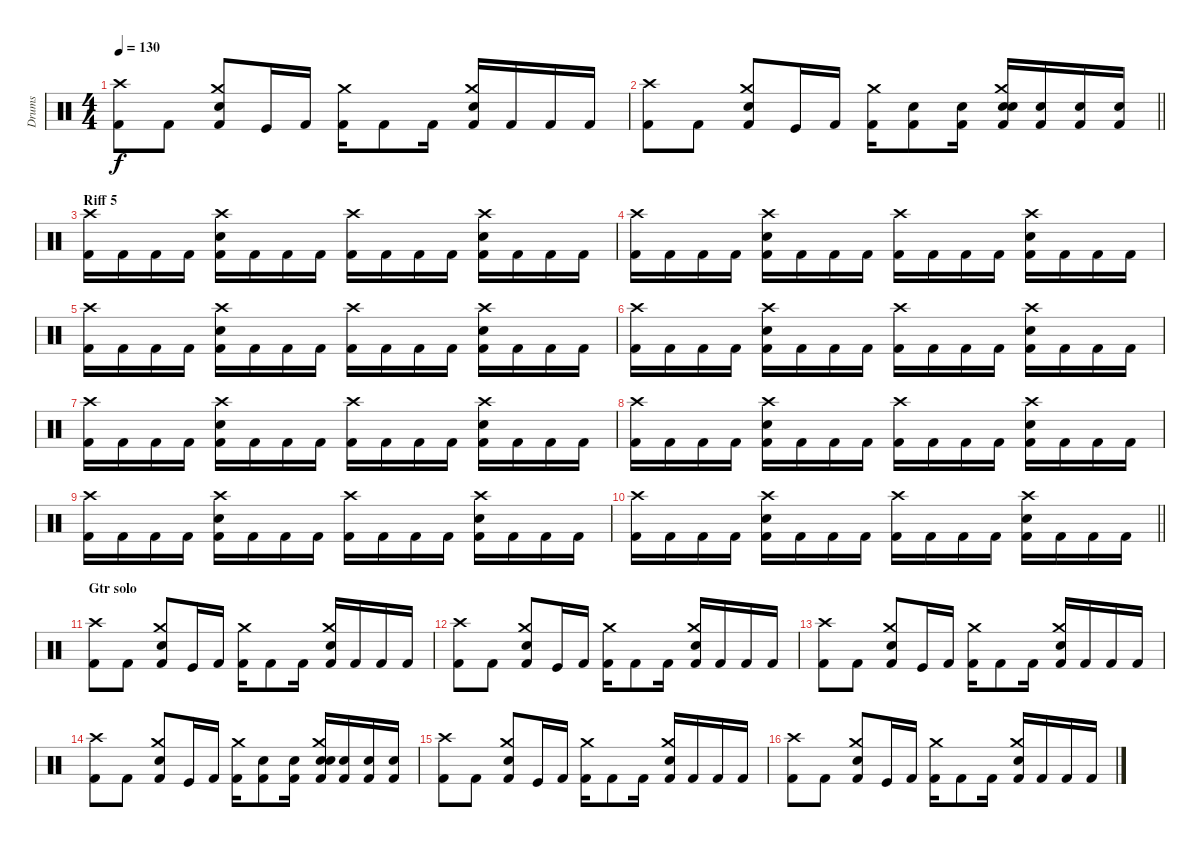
\track ("Drums" "Drums") {instrument percussion}
\staff {score}
\articulation defaults
\ts (4 4)
\tempo 130
\clef neutral
\ks c
("Crash high (hit)" "Kick (hit) 2").8{dy f} "Kick (hit) 2".8 ("Crash medium (hit)" "Electric Snare (hit)" "Kick (hit) 2").8 "Kick (hit)".16 "Kick (hit) 2".16 ("Crash medium (hit)" "Kick (hit) 2").16 "Kick (hit) 2".8 "Kick (hit) 2".16 ("Crash medium (hit)" "Electric Snare (hit)" "Kick (hit) 2").16 "Kick (hit) 2".16 "Kick (hit) 2".16 "Kick (hit) 2".16 |
\barLineRight lightlight
("Crash high (hit)" "Kick (hit) 2").8 "Kick (hit) 2".8 ("Crash medium (hit)" "Electric Snare (hit)" "Kick (hit) 2").8 "Kick (hit)".16 "Kick (hit) 2".16 ("Crash medium (hit)" "Kick (hit) 2").16 ("Electric Snare (hit)" "Kick (hit) 2").8 ("Electric Snare (hit)" "Kick (hit) 2").16 ("Crash medium (hit)" "Electric Snare (hit)" "Electric Snare (hit)" "Kick (hit) 2").16 ("Electric Snare (hit)" "Kick (hit) 2").16 ("Electric Snare (hit)" "Kick (hit) 2").16 ("Electric Snare (hit)" "Kick (hit) 2").16 |
\section ("" "Riff 5")
("Crash high (hit)" "Kick (hit) 2").16 "Kick (hit) 2".16 "Kick (hit) 2".16 "Kick (hit) 2".16 ("Crash high (hit)" "Electric Snare (hit)" "Kick (hit) 2").16 "Kick (hit) 2".16 "Kick (hit) 2".16 "Kick (hit) 2".16 ("Crash high (hit)" "Kick (hit) 2").16 "Kick (hit) 2".16 "Kick (hit) 2".16 "Kick (hit) 2".16 ("Crash high (hit)" "Electric Snare (hit)" "Kick (hit) 2").16 "Kick (hit) 2".16 "Kick (hit) 2".16 "Kick (hit) 2".16 |
("Crash high (hit)" "Kick (hit) 2").16 "Kick (hit) 2".16 "Kick (hit) 2".16 "Kick (hit) 2".16 ("Crash high (hit)" "Electric Snare (hit)" "Kick (hit) 2").16 "Kick (hit) 2".16 "Kick (hit) 2".16 "Kick (hit) 2".16 ("Crash high (hit)" "Kick (hit) 2").16 "Kick (hit) 2".16 "Kick (hit) 2".16 "Kick (hit) 2".16 ("Crash high (hit)" "Electric Snare (hit)" "Kick (hit) 2").16 "Kick (hit) 2".16 "Kick (hit) 2".16 "Kick (hit) 2".16 |
("Crash high (hit)" "Kick (hit) 2").16 "Kick (hit) 2".16 "Kick (hit) 2".16 "Kick (hit) 2".16 ("Crash high (hit)" "Electric Snare (hit)" "Kick (hit) 2").16 "Kick (hit) 2".16 "Kick (hit) 2".16 "Kick (hit) 2".16 ("Crash high (hit)" "Kick (hit) 2").16 "Kick (hit) 2".16 "Kick (hit) 2".16 "Kick (hit) 2".16 ("Crash high (hit)" "Electric Snare (hit)" "Kick (hit) 2").16 "Kick (hit) 2".16 "Kick (hit) 2".16 "Kick (hit) 2".16 |
("Crash high (hit)" "Kick (hit) 2").16 "Kick (hit) 2".16 "Kick (hit) 2".16 "Kick (hit) 2".16 ("Crash high (hit)" "Electric Snare (hit)" "Kick (hit) 2").16 "Kick (hit) 2".16 "Kick (hit) 2".16 "Kick (hit) 2".16 ("Crash high (hit)" "Kick (hit) 2").16 "Kick (hit) 2".16 "Kick (hit) 2".16 "Kick (hit) 2".16 ("Crash high (hit)" "Electric Snare (hit)" "Kick (hit) 2").16 "Kick (hit) 2".16 "Kick (hit) 2".16 "Kick (hit) 2".16 |
("Crash high (hit)" "Kick (hit) 2").16 "Kick (hit) 2".16 "Kick (hit) 2".16 "Kick (hit) 2".16 ("Crash high (hit)" "Electric Snare (hit)" "Kick (hit) 2").16 "Kick (hit) 2".16 "Kick (hit) 2".16 "Kick (hit) 2".16 ("Crash high (hit)" "Kick (hit) 2").16 "Kick (hit) 2".16 "Kick (hit) 2".16 "Kick (hit) 2".16 ("Crash high (hit)" "Electric Snare (hit)" "Kick (hit) 2").16 "Kick (hit) 2".16 "Kick (hit) 2".16 "Kick (hit) 2".16 |
("Crash high (hit)" "Kick (hit) 2").16 "Kick (hit) 2".16 "Kick (hit) 2".16 "Kick (hit) 2".16 ("Crash high (hit)" "Electric Snare (hit)" "Kick (hit) 2").16 "Kick (hit) 2".16 "Kick (hit) 2".16 "Kick (hit) 2".16 ("Crash high (hit)" "Kick (hit) 2").16 "Kick (hit) 2".16 "Kick (hit) 2".16 "Kick (hit) 2".16 ("Crash high (hit)" "Electric Snare (hit)" "Kick (hit) 2").16 "Kick (hit) 2".16 "Kick (hit) 2".16 "Kick (hit) 2".16 |
("Crash high (hit)" "Kick (hit) 2").16 "Kick (hit) 2".16 "Kick (hit) 2".16 "Kick (hit) 2".16 ("Crash high (hit)" "Electric Snare (hit)" "Kick (hit) 2").16 "Kick (hit) 2".16 "Kick (hit) 2".16 "Kick (hit) 2".16 ("Crash high (hit)" "Kick (hit) 2").16 "Kick (hit) 2".16 "Kick (hit) 2".16 "Kick (hit) 2".16 ("Crash high (hit)" "Electric Snare (hit)" "Kick (hit) 2").16 "Kick (hit) 2".16 "Kick (hit) 2".16 "Kick (hit) 2".16 |
\barLineRight lightlight
("Crash high (hit)" "Kick (hit) 2").16 "Kick (hit) 2".16 "Kick (hit) 2".16 "Kick (hit) 2".16 ("Crash high (hit)" "Electric Snare (hit)" "Kick (hit) 2").16 "Kick (hit) 2".16 "Kick (hit) 2".16 "Kick (hit) 2".16 ("Crash high (hit)" "Kick (hit) 2").16 "Kick (hit) 2".16 "Kick (hit) 2".16 "Kick (hit) 2".16 ("Crash high (hit)" "Electric Snare (hit)" "Kick (hit) 2").16 "Kick (hit) 2".16 "Kick (hit) 2".16 "Kick (hit) 2".16 |
\section ("" "Gtr solo")
("Crash high (hit)" "Kick (hit) 2").8 "Kick (hit) 2".8 ("Crash medium (hit)" "Electric Snare (hit)" "Kick (hit) 2").8 "Kick (hit)".16 "Kick (hit) 2".16 ("Crash medium (hit)" "Kick (hit) 2").16 "Kick (hit) 2".8 "Kick (hit) 2".16 ("Crash medium (hit)" "Electric Snare (hit)" "Kick (hit) 2").16 "Kick (hit) 2".16 "Kick (hit) 2".16 "Kick (hit) 2".16 |
("Crash high (hit)" "Kick (hit) 2").8 "Kick (hit) 2".8 ("Crash medium (hit)" "Electric Snare (hit)" "Kick (hit) 2").8 "Kick (hit)".16 "Kick (hit) 2".16 ("Crash medium (hit)" "Kick (hit) 2").16 "Kick (hit) 2".8 "Kick (hit) 2".16 ("Crash medium (hit)" "Electric Snare (hit)" "Kick (hit) 2").16 "Kick (hit) 2".16 "Kick (hit) 2".16 "Kick (hit) 2".16 |
("Crash high (hit)" "Kick (hit) 2").8 "Kick (hit) 2".8 ("Crash medium (hit)" "Electric Snare (hit)" "Kick (hit) 2").8 "Kick (hit)".16 "Kick (hit) 2".16 ("Crash medium (hit)" "Kick (hit) 2").16 "Kick (hit) 2".8 "Kick (hit) 2".16 ("Crash medium (hit)" "Electric Snare (hit)" "Kick (hit) 2").16 "Kick (hit) 2".16 "Kick (hit) 2".16 "Kick (hit) 2".16 |
("Crash high (hit)" "Kick (hit) 2").8 "Kick (hit) 2".8 ("Crash medium (hit)" "Electric Snare (hit)" "Kick (hit) 2").8 "Kick (hit)".16 "Kick (hit) 2".16 ("Crash medium (hit)" "Kick (hit) 2").16 ("Electric Snare (hit)" "Kick (hit) 2").8 ("Electric Snare (hit)" "Kick (hit) 2").16 ("Crash medium (hit)" "Electric Snare (hit)" "Electric Snare (hit)" "Kick (hit) 2").16 ("Electric Snare (hit)" "Kick (hit) 2").16 ("Electric Snare (hit)" "Kick (hit) 2").16 ("Electric Snare (hit)" "Kick (hit) 2").16 |
("Crash high (hit)" "Kick (hit) 2").8 "Kick (hit) 2".8 ("Crash medium (hit)" "Electric Snare (hit)" "Kick (hit) 2").8 "Kick (hit)".16 "Kick (hit) 2".16 ("Crash medium (hit)" "Kick (hit) 2").16 "Kick (hit) 2".8 "Kick (hit) 2".16 ("Crash medium (hit)" "Electric Snare (hit)" "Kick (hit) 2").16 "Kick (hit) 2".16 "Kick (hit) 2".16 "Kick (hit) 2".16 |
("Crash high (hit)" "Kick (hit) 2").8 "Kick (hit) 2".8 ("Crash medium (hit)" "Electric Snare (hit)" "Kick (hit) 2").8 "Kick (hit)".16 "Kick (hit) 2".16 ("Crash medium (hit)" "Kick (hit) 2").16 "Kick (hit) 2".8 "Kick (hit) 2".16 ("Crash medium (hit)" "Electric Snare (hit)" "Kick (hit) 2").16 "Kick (hit) 2".16 "Kick (hit) 2".16 "Kick (hit) 2".16
